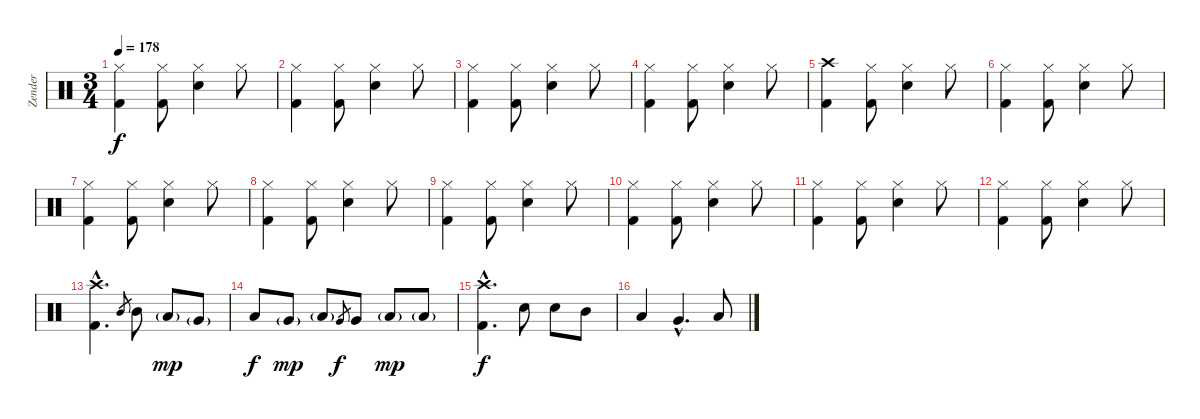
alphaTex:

\track ("Zender" "Zender") {instrument percussion}
\staff {score}
\articulation defaults
\ts (3 4)
\tempo 178
\clef neutral
\ks c
("Hi-Hat (closed)" "Kick (hit) 2").4{dy f} ("Hi-Hat (closed)" "Kick (hit) 2").8 ("Electric Snare (hit)" "Hi-Hat (closed)").4 "Hi-Hat (closed)".8 |
("Hi-Hat (closed)" "Kick (hit) 2").4 ("Hi-Hat (closed)" "Kick (hit) 2").8 ("Electric Snare (hit)" "Hi-Hat (closed)").4 "Hi-Hat (closed)".8 |
("Hi-Hat (closed)" "Kick (hit) 2").4 ("Hi-Hat (closed)" "Kick (hit) 2").8 ("Electric Snare (hit)" "Hi-Hat (closed)").4 "Hi-Hat (closed)".8 |
("Hi-Hat (closed)" "Kick (hit) 2").4 ("Hi-Hat (closed)" "Kick (hit) 2").8 ("Electric Snare (hit)" "Hi-Hat (closed)").4 "Hi-Hat (closed)".8 |
("Crash high (hit)" "Kick (hit) 2").4 ("Hi-Hat (closed)" "Kick (hit) 2").8 ("Electric Snare (hit)" "Hi-Hat (closed)").4 "Hi-Hat (closed)".8 |
("Hi-Hat (closed)" "Kick (hit) 2").4 ("Hi-Hat (closed)" "Kick (hit) 2").8 ("Electric Snare (hit)" "Hi-Hat (closed)").4 "Hi-Hat (closed)".8 |
("Hi-Hat (closed)" "Kick (hit) 2").4 ("Hi-Hat (closed)" "Kick (hit) 2").8 ("Electric Snare (hit)" "Hi-Hat (closed)").4 "Hi-Hat (closed)".8 |
("Hi-Hat (closed)" "Kick (hit) 2").4 ("Hi-Hat (closed)" "Kick (hit) 2").8 ("Electric Snare (hit)" "Hi-Hat (closed)").4 "Hi-Hat (closed)".8 |
("Hi-Hat (closed)" "Kick (hit) 2").4 ("Hi-Hat (closed)" "Kick (hit) 2").8 ("Electric Snare (hit)" "Hi-Hat (closed)").4 "Hi-Hat (closed)".8 |
("Hi-Hat (closed)" "Kick (hit) 2").4 ("Hi-Hat (closed)" "Kick (hit) 2").8 ("Electric Snare (hit)" "Hi-Hat (closed)").4 "Hi-Hat (closed)".8 |
("Hi-Hat (closed)" "Kick (hit) 2").4 ("Hi-Hat (closed)" "Kick (hit) 2").8 ("Electric Snare (hit)" "Hi-Hat (closed)").4 "Hi-Hat (closed)".8 |
("Hi-Hat (closed)" "Kick (hit) 2").4 ("Hi-Hat (closed)" "Kick (hit) 2").8 ("Electric Snare (hit)" "Hi-Hat (closed)").4 "Hi-Hat (closed)".8 |
("Crash high (hit)"{hac} "Kick (hit) 2"{hac}).4{d} "Mid Tom (hit)".8{gr} "Mid Tom (hit)".8 "Low Tom (hit)"{g}.8{dy mp} "Very Low Tom (hit)"{g}.8 |
"Low Tom (hit)".8{dy f} "Very Low Tom (hit)"{g}.8{dy mp} "Low Floor Tom (hit)"{g}.8 "Very Low Tom (hit)".8{gr dy f} "Very Low Tom (hit)".8 "Low Floor Tom (hit)"{g}.8{dy mp} "Low Floor Tom (hit)"{g}.8 |
("Crash high (hit)"{hac} "Kick (hit) 2"{hac}).4{d dy f} "Electric Snare (hit)".8 "Electric Snare (hit)".8 "Mid Tom (hit)".8 |
"Low Tom (hit)".4 "Very Low Tom (hit)"{hac}.4{d} "Low Floor Tom (hit)".8
